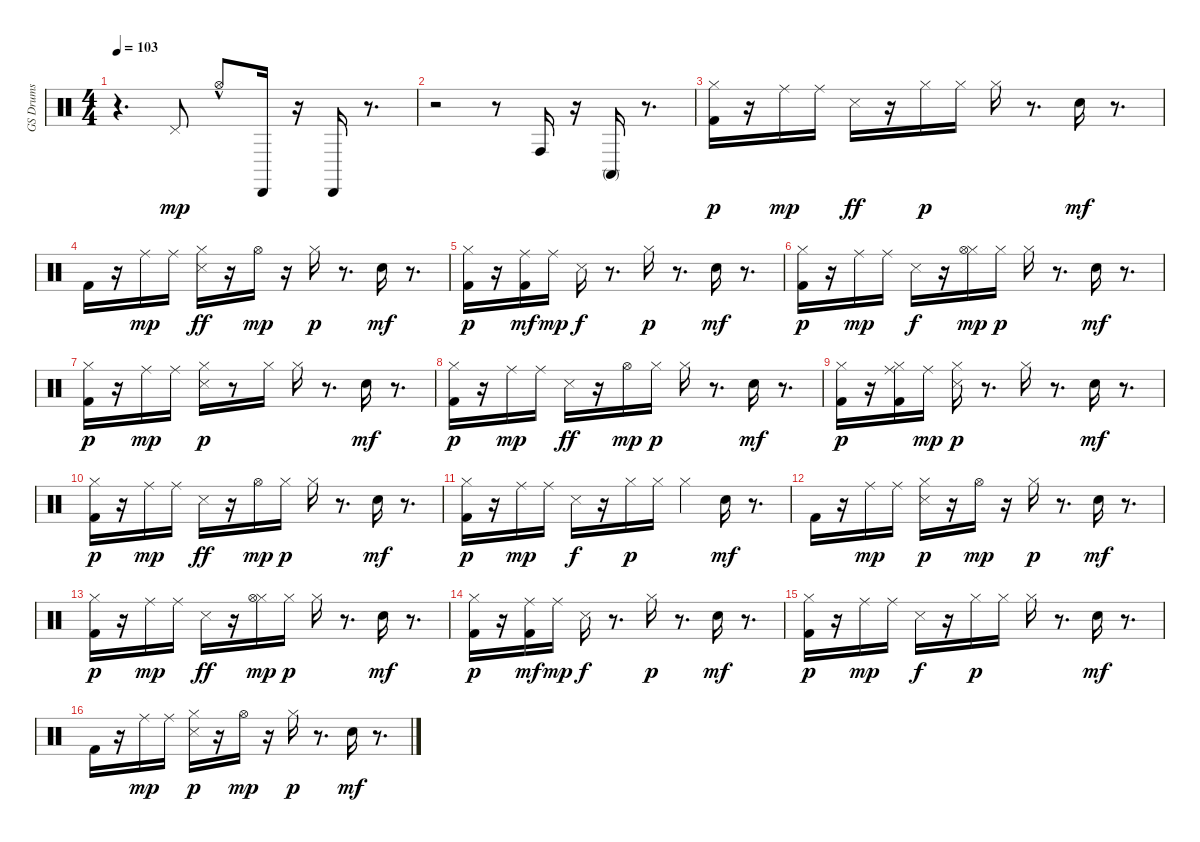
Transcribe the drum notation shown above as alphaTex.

\track ("GS Drums" "GS Drums") {instrument percussion}
\staff {score}
\articulation defaults
\ts (4 4)
\tempo 103
\clef neutral
\ks c
r.4{d dy mp} "Pedal Hi-Hat (hit)".8 "Hi-Hat (open)"{hac}.8 "Cabasa (hit)".16 r.16 "Cabasa (hit)".16 r.8{d} |
r.2 r.8 "Conga high (hit)".16 r.16 "Conga high (mute)".16 r.8{d} |
("Kick (hit) 2" "Hi-Hat (closed)").16{dy p} r.16 "Ride (middle)".16{dy mp} "Ride (middle)".16 "Snare (side stick) 3".16{dy ff} r.16 "Hi-Hat (closed)".16{dy p} "Hi-Hat (closed)".16 "Hi-Hat (closed)".16 r.8{d} "Snare (hit) 2".16{dy mf} r.8{d} |
"Kick (hit) 2".16 r.16 "Ride (middle)".16{dy mp} "Ride (middle)".16 ("Hi-Hat (closed)" "Snare (side stick) 3").16{dy ff} r.16 "Hi-Hat (open)".16{dy mp} r.16 "Hi-Hat (closed)".16{dy p} r.8{d} "Snare (hit) 2".16{dy mf} r.8{d} |
("Kick (hit) 2" "Hi-Hat (closed)").16{dy p} r.16 ("Ride (middle)" "Kick (hit) 2").16{dy mf} "Ride (middle)".16{dy mp} "Snare (side stick) 3".16{dy f} r.8{d} "Hi-Hat (closed)".16{dy p} r.8{d} "Snare (hit) 2".16{dy mf} r.8{d} |
("Kick (hit) 2" "Hi-Hat (closed)").16{dy p} r.16 "Ride (middle)".16{dy mp} "Ride (middle)".16 "Snare (side stick) 3".16{dy f} r.16 ("Hi-Hat (closed)" "Hi-Hat (open)").16{dy mp} "Hi-Hat (closed)".16{dy p} "Hi-Hat (closed)".16 r.8{d} "Snare (hit) 2".16{dy mf} r.8{d} |
("Kick (hit) 2" "Hi-Hat (closed)").16{dy p} r.16 "Ride (middle)".16{dy mp} "Ride (middle)".16 ("Hi-Hat (closed)" "Snare (side stick) 3").16{dy p} r.8 "Hi-Hat (closed)".16 "Hi-Hat (closed)".16 r.8{d} "Snare (hit) 2".16{dy mf} r.8{d} |
("Kick (hit) 2" "Hi-Hat (closed)").16{dy p} r.16 "Ride (middle)".16{dy mp} "Ride (middle)".16 "Snare (side stick) 3".16{dy ff} r.16 "Hi-Hat (open)".16{dy mp} "Hi-Hat (closed)".16{dy p} "Hi-Hat (closed)".16 r.8{d} "Snare (hit) 2".16{dy mf} r.8{d} |
("Kick (hit) 2" "Hi-Hat (closed)").16{dy p} r.16 ("Ride (middle)" "Kick (hit) 2" "Hi-Hat (closed)").16 "Ride (middle)".16{dy mp} ("Hi-Hat (closed)" "Snare (side stick) 3").16{dy p} r.8{d} "Hi-Hat (closed)".16 r.8{d} "Snare (hit) 2".16{dy mf} r.8{d} |
("Kick (hit) 2" "Hi-Hat (closed)").16{dy p} r.16 "Ride (middle)".16{dy mp} "Ride (middle)".16 "Snare (side stick) 3".16{dy ff} r.16 "Hi-Hat (open)".16{dy mp} "Hi-Hat (closed)".16{dy p} "Hi-Hat (closed)".16 r.8{d} "Snare (hit) 2".16{dy mf} r.8{d} |
("Kick (hit) 2" "Hi-Hat (closed)").16{dy p} r.16 "Ride (middle)".16{dy mp} "Ride (middle)".16 "Snare (side stick) 3".16{dy f} r.16 "Hi-Hat (closed)".16{dy p} "Hi-Hat (closed)".16 "Hi-Hat (closed)".4 "Snare (hit) 2".16{dy mf} r.8{d} |
"Kick (hit) 2".16 r.16 "Ride (middle)".16{dy mp} "Ride (middle)".16 ("Hi-Hat (closed)" "Snare (side stick) 3").16{dy p} r.16 "Hi-Hat (open)".16{dy mp} r.16 "Hi-Hat (closed)".16{dy p} r.8{d} "Snare (hit) 2".16{dy mf} r.8{d} |
("Kick (hit) 2" "Hi-Hat (closed)").16{dy p} r.16 "Ride (middle)".16{dy mp} "Ride (middle)".16 "Snare (side stick) 3".16{dy ff} r.16 ("Hi-Hat (closed)" "Hi-Hat (open)").16{dy mp} "Hi-Hat (closed)".16{dy p} "Hi-Hat (closed)".16 r.8{d} "Snare (hit) 2".16{dy mf} r.8{d} |
("Kick (hit) 2" "Hi-Hat (closed)").16{dy p} r.16 ("Ride (middle)" "Kick (hit) 2").16{dy mf} "Ride (middle)".16{dy mp} "Snare (side stick) 3".16{dy f} r.8{d} "Hi-Hat (closed)".16{dy p} r.8{d} "Snare (hit) 2".16{dy mf} r.8{d} |
("Kick (hit) 2" "Hi-Hat (closed)").16{dy p} r.16 "Ride (middle)".16{dy mp} "Ride (middle)".16 "Snare (side stick) 3".16{dy f} r.16 "Hi-Hat (closed)".16{dy p} "Hi-Hat (closed)".16 "Hi-Hat (closed)".16 r.8{d} "Snare (hit) 2".16{dy mf} r.8{d} |
"Kick (hit) 2".16 r.16 "Ride (middle)".16{dy mp} "Ride (middle)".16 ("Hi-Hat (closed)" "Snare (side stick) 3").16{dy p} r.16 "Hi-Hat (open)".16{dy mp} r.16 "Hi-Hat (closed)".16{dy p} r.8{d} "Snare (hit) 2".16{dy mf} r.8{d}
